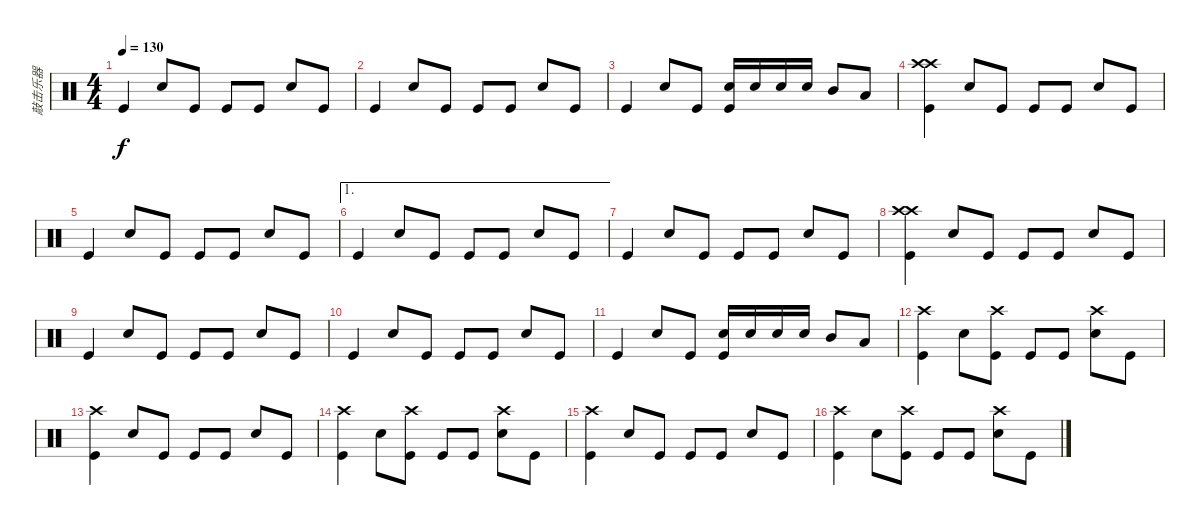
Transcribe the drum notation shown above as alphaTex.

\track ("敲击乐器" "敲击乐器") {instrument percussion}
\staff {score}
\articulation defaults
\ts (4 4)
\tempo 130
\clef neutral
\ks c "Kick (hit)".4{dy f} "Snare (hit) 2".8 "Kick (hit)".8 "Kick (hit)".8 "Kick (hit)".8 "Snare (hit) 2".8 "Kick (hit)".8
|
"Kick (hit)".4 "Snare (hit) 2".8 "Kick (hit)".8 "Kick (hit)".8 "Kick (hit)".8 "Snare (hit) 2".8 "Kick (hit)".8 |
"Kick (hit)".4 "Snare (hit) 2".8 "Kick (hit)".8 ("Snare (hit) 2" "Kick (hit)").16 "Snare (hit) 2".16 "Snare (hit) 2".16 "Snare (hit) 2".16 "Mid Tom (hit)".8 "Low Tom (hit)".8 |
("Crash high (hit)" "Crash high (hit)" "Kick (hit)").4 "Snare (hit) 2".8 "Kick (hit)".8 "Kick (hit)".8 "Kick (hit)".8 "Snare (hit) 2".8 "Kick (hit)".8 |
"Kick (hit)".4 "Snare (hit) 2".8 "Kick (hit)".8 "Kick (hit)".8 "Kick (hit)".8 "Snare (hit) 2".8 "Kick (hit)".8 |
\ae 1 "Kick (hit)".4 "Snare (hit) 2".8 "Kick (hit)".8 "Kick (hit)".8 "Kick (hit)".8 "Snare (hit) 2".8 "Kick (hit)".8
|
"Kick (hit)".4 "Snare (hit) 2".8 "Kick (hit)".8 "Kick (hit)".8 "Kick (hit)".8 "Snare (hit) 2".8 "Kick (hit)".8 |
("Crash high (hit)" "Crash high (hit)" "Kick (hit)").4 "Snare (hit) 2".8 "Kick (hit)".8 "Kick (hit)".8 "Kick (hit)".8 "Snare (hit) 2".8 "Kick (hit)".8 |
"Kick (hit)".4 "Snare (hit) 2".8 "Kick (hit)".8 "Kick (hit)".8 "Kick (hit)".8 "Snare (hit) 2".8 "Kick (hit)".8 |
"Kick (hit)".4 "Snare (hit) 2".8 "Kick (hit)".8 "Kick (hit)".8 "Kick (hit)".8 "Snare (hit) 2".8 "Kick (hit)".8 |
"Kick (hit)".4 "Snare (hit) 2".8 "Kick (hit)".8 ("Snare (hit) 2" "Kick (hit)").16 "Snare (hit) 2".16 "Snare (hit) 2".16 "Snare (hit) 2".16 "Mid Tom (hit)".8 "Low Tom (hit)".8 |
("Crash high (hit)" "Kick (hit)").4 "Snare (hit) 2".8 ("Crash high (hit)" "Kick (hit)").8 "Kick (hit)".8 "Kick (hit)".8 ("Crash high (hit)" "Snare (hit) 2").8 "Kick (hit)".8 |
("Crash high (hit)" "Kick (hit)").4 "Snare (hit) 2".8 "Kick (hit)".8 "Kick (hit)".8 "Kick (hit)".8 "Snare (hit) 2".8 "Kick (hit)".8 |
("Crash high (hit)" "Kick (hit)").4 "Snare (hit) 2".8 ("Crash high (hit)" "Kick (hit)").8 "Kick (hit)".8 "Kick (hit)".8 ("Crash high (hit)" "Snare (hit) 2").8 "Kick (hit)".8 |
("Crash high (hit)" "Kick (hit)").4 "Snare (hit) 2".8 "Kick (hit)".8 "Kick (hit)".8 "Kick (hit)".8 "Snare (hit) 2".8 "Kick (hit)".8 |
("Crash high (hit)" "Kick (hit)").4 "Snare (hit) 2".8 ("Crash high (hit)" "Kick (hit)").8 "Kick (hit)".8 "Kick (hit)".8 ("Crash high (hit)" "Snare (hit) 2").8 "Kick (hit)".8
